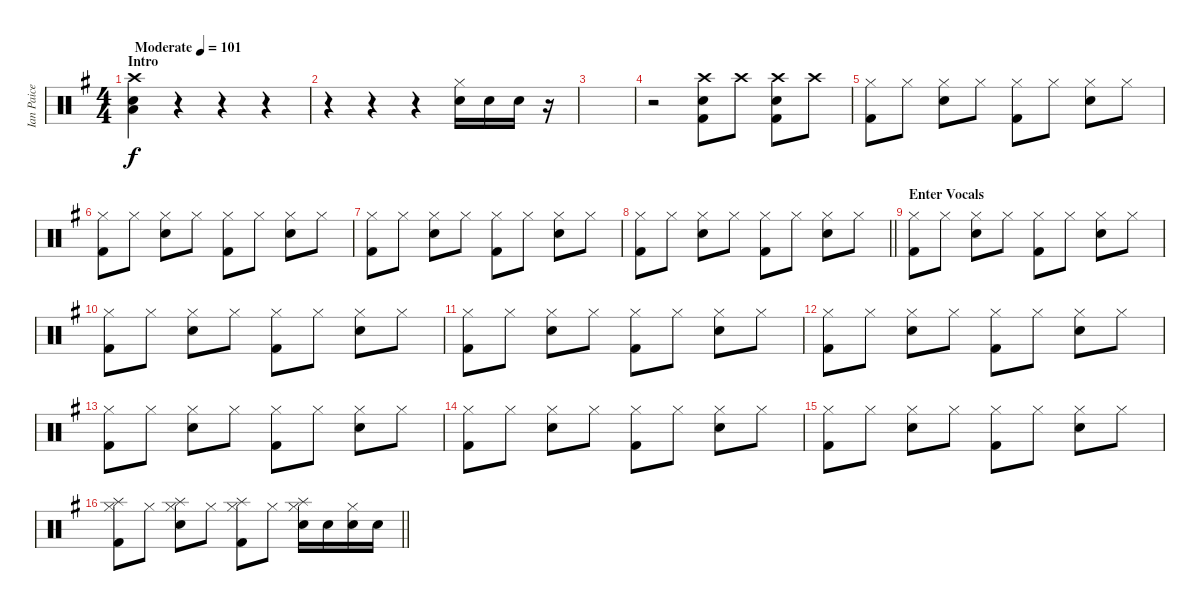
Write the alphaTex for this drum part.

\track ("Ian Paice" "Ian Paice") {instrument percussion}
\staff {score}
\articulation defaults
\ts (4 4)
\section ("" "Intro")
\tempo (101 "Moderate")
\clef neutral
\ks g
("Electric Snare (hit)" "Crash high (hit)" "Low Floor Tom (hit)").4{dy f} r.4 r.4 r.4 |
r.4 r.4 r.4 ("Hi-Hat (closed)" "Snare (hit) 2").16 "Snare (hit) 2".16 "Snare (hit) 2".16 r.16 |
|
r.2 ("Crash high (hit)" "Snare (hit) 2" "Kick (hit) 2").8 "Crash high (hit)".8 ("Crash high (hit)" "Snare (hit) 2" "Kick (hit) 2").8 "Crash high (hit)".8 |
("Hi-Hat (closed)" "Kick (hit) 2").8 "Hi-Hat (closed)".8 ("Hi-Hat (closed)" "Snare (hit) 2").8 "Hi-Hat (closed)".8 ("Hi-Hat (closed)" "Kick (hit) 2").8 "Hi-Hat (closed)".8 ("Hi-Hat (closed)" "Snare (hit) 2").8 "Hi-Hat (closed)".8 |
("Hi-Hat (closed)" "Kick (hit) 2").8 "Hi-Hat (closed)".8 ("Hi-Hat (closed)" "Snare (hit) 2").8 "Hi-Hat (closed)".8 ("Hi-Hat (closed)" "Kick (hit) 2").8 "Hi-Hat (closed)".8 ("Hi-Hat (closed)" "Snare (hit) 2").8 "Hi-Hat (closed)".8 |
("Hi-Hat (closed)" "Kick (hit) 2").8 "Hi-Hat (closed)".8 ("Hi-Hat (closed)" "Snare (hit) 2").8 "Hi-Hat (closed)".8 ("Hi-Hat (closed)" "Kick (hit) 2").8 "Hi-Hat (closed)".8 ("Hi-Hat (closed)" "Snare (hit) 2").8 "Hi-Hat (closed)".8 |
\barLineRight lightlight
("Hi-Hat (closed)" "Kick (hit) 2").8 "Hi-Hat (closed)".8 ("Hi-Hat (closed)" "Snare (hit) 2").8 "Hi-Hat (closed)".8 ("Hi-Hat (closed)" "Kick (hit) 2").8 "Hi-Hat (closed)".8 ("Hi-Hat (closed)" "Snare (hit) 2").8 "Hi-Hat (closed)".8 |
\section ("" "Enter Vocals")
("Hi-Hat (closed)" "Kick (hit) 2").8 "Hi-Hat (closed)".8 ("Hi-Hat (closed)" "Snare (hit) 2").8 "Hi-Hat (closed)".8 ("Hi-Hat (closed)" "Kick (hit) 2").8 "Hi-Hat (closed)".8 ("Hi-Hat (closed)" "Snare (hit) 2").8 "Hi-Hat (closed)".8 |
("Hi-Hat (closed)" "Kick (hit) 2").8 "Hi-Hat (closed)".8 ("Hi-Hat (closed)" "Snare (hit) 2").8 "Hi-Hat (closed)".8 ("Hi-Hat (closed)" "Kick (hit) 2").8 "Hi-Hat (closed)".8 ("Hi-Hat (closed)" "Snare (hit) 2").8 "Hi-Hat (closed)".8 |
("Hi-Hat (closed)" "Kick (hit) 2").8 "Hi-Hat (closed)".8 ("Hi-Hat (closed)" "Snare (hit) 2").8 "Hi-Hat (closed)".8 ("Hi-Hat (closed)" "Kick (hit) 2").8 "Hi-Hat (closed)".8 ("Hi-Hat (closed)" "Snare (hit) 2").8 "Hi-Hat (closed)".8 |
("Hi-Hat (closed)" "Kick (hit) 2").8 "Hi-Hat (closed)".8 ("Hi-Hat (closed)" "Snare (hit) 2").8 "Hi-Hat (closed)".8 ("Hi-Hat (closed)" "Kick (hit) 2").8 "Hi-Hat (closed)".8 ("Hi-Hat (closed)" "Snare (hit) 2").8 "Hi-Hat (closed)".8 |
("Hi-Hat (closed)" "Kick (hit) 2").8 "Hi-Hat (closed)".8 ("Hi-Hat (closed)" "Snare (hit) 2").8 "Hi-Hat (closed)".8 ("Hi-Hat (closed)" "Kick (hit) 2").8 "Hi-Hat (closed)".8 ("Hi-Hat (closed)" "Snare (hit) 2").8 "Hi-Hat (closed)".8 |
("Hi-Hat (closed)" "Kick (hit) 2").8 "Hi-Hat (closed)".8 ("Hi-Hat (closed)" "Snare (hit) 2").8 "Hi-Hat (closed)".8 ("Hi-Hat (closed)" "Kick (hit) 2").8 "Hi-Hat (closed)".8 ("Hi-Hat (closed)" "Snare (hit) 2").8 "Hi-Hat (closed)".8 |
("Hi-Hat (closed)" "Kick (hit) 2").8 "Hi-Hat (closed)".8 ("Hi-Hat (closed)" "Snare (hit) 2").8 "Hi-Hat (closed)".8 ("Hi-Hat (closed)" "Kick (hit) 2").8 "Hi-Hat (closed)".8 ("Hi-Hat (closed)" "Snare (hit) 2").8 "Hi-Hat (closed)".8 |
\barLineRight lightlight
("Splash (hit)" "Hi-Hat (closed)" "Kick (hit) 2").8 "Hi-Hat (closed)".8 ("Splash (hit)" "Hi-Hat (closed)" "Snare (hit) 2").8 "Hi-Hat (closed)".8 ("Splash (hit)" "Hi-Hat (closed)" "Kick (hit) 2").8 "Hi-Hat (closed)".8 ("Splash (hit)" "Hi-Hat (closed)" "Snare (hit) 2").16 "Snare (hit) 2".16 ("Hi-Hat (closed)" "Snare (hit) 2").16 "Snare (hit) 2".16
